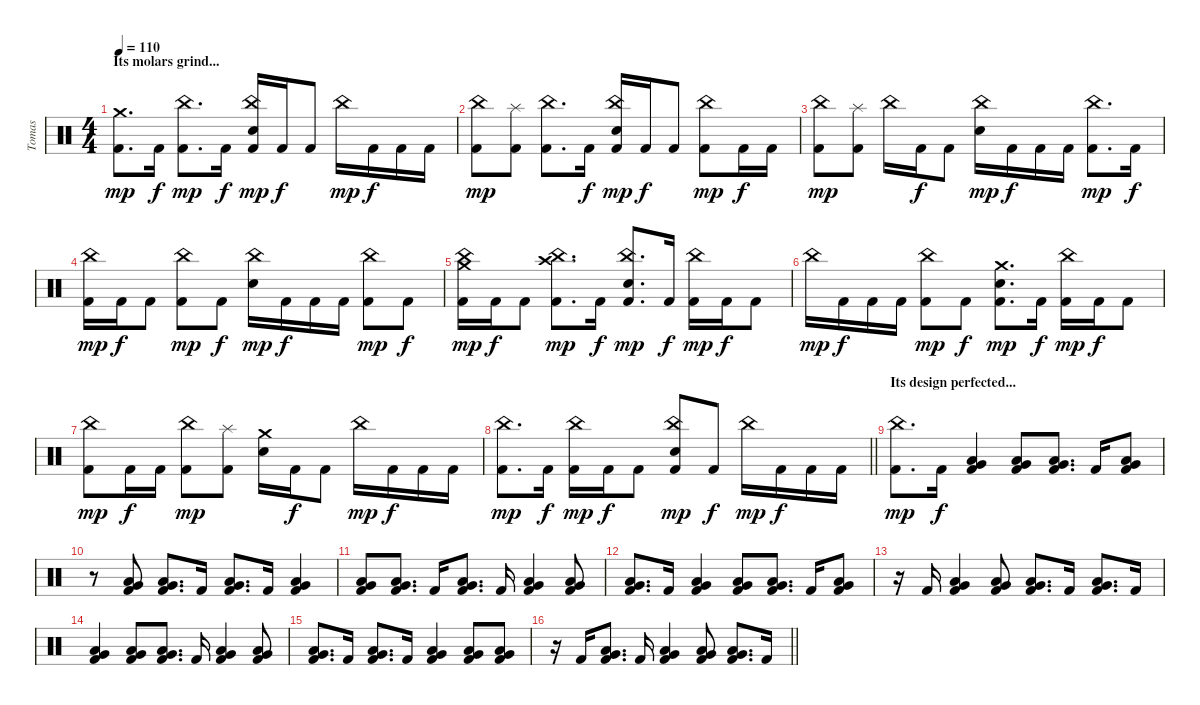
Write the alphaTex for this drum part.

\track ("Tomas" "Tomas") {instrument percussion}
\staff {score}
\articulation defaults
\ts (4 4)
\section ("" "Its molars grind...")
\tempo 110
\clef neutral
\ks c
("Crash medium (hit)" "Kick (hit) 2").8{d dy mp} "Kick (hit) 2".16{dy f} ("China (hit)" "Kick (hit) 2").8{d dy mp} "Kick (hit) 2".16{dy f} ("China (hit)" "Electric Snare (hit)" "Kick (hit) 2").16{dy mp} "Kick (hit) 2".16{dy f} "Kick (hit) 2".8 "China (hit)".16{dy mp} "Kick (hit) 2".16{dy f} "Kick (hit) 2".16 "Kick (hit) 2".16 |
("China (hit)" "Kick (hit) 2").8{dy mp} ("Splash (hit)" "Kick (hit) 2").8 ("China (hit)" "Kick (hit) 2").8{d} "Kick (hit) 2".16{dy f} ("China (hit)" "Electric Snare (hit)" "Kick (hit) 2").16{dy mp} "Kick (hit) 2".16{dy f} "Kick (hit) 2".8 ("China (hit)" "Kick (hit) 2").8{dy mp} "Kick (hit) 2".16{dy f} "Kick (hit) 2".16 |
("China (hit)" "Kick (hit) 2").8{dy mp} ("Splash (hit)" "Kick (hit) 2").8 "China (hit)".16 "Kick (hit) 2".16{dy f} "Kick (hit) 2".8 ("China (hit)" "Electric Snare (hit)").16{dy mp} "Kick (hit) 2".16{dy f} "Kick (hit) 2".16 "Kick (hit) 2".16 ("China (hit)" "Kick (hit) 2").8{d dy mp} "Kick (hit) 2".16{dy f} |
("China (hit)" "Kick (hit) 2").16{dy mp} "Kick (hit) 2".16{dy f} "Kick (hit) 2".8 ("China (hit)" "Kick (hit) 2").8{dy mp} "Kick (hit) 2".8{dy f} ("China (hit)" "Electric Snare (hit)").16{dy mp} "Kick (hit) 2".16{dy f} "Kick (hit) 2".16 "Kick (hit) 2".16 ("China (hit)" "Kick (hit) 2").8{dy mp} "Kick (hit) 2".8{dy f} |
("China (hit)" "Crash medium (hit)" "Kick (hit) 2").16{dy mp} "Kick (hit) 2".16{dy f} "Kick (hit) 2".8 ("China (hit)" "Crash high (hit)" "Kick (hit) 2").8{d dy mp} "Kick (hit) 2".16{dy f} ("China (hit)" "Electric Snare (hit)" "Kick (hit) 2").8{d dy mp} "Kick (hit) 2".16{dy f} ("China (hit)" "Kick (hit) 2").16{dy mp} "Kick (hit) 2".16{dy f} "Kick (hit) 2".8 |
"China (hit)".16{dy mp} "Kick (hit) 2".16{dy f} "Kick (hit) 2".16 "Kick (hit) 2".16 ("China (hit)" "Kick (hit) 2").8{dy mp} "Kick (hit) 2".8{dy f} ("Crash medium (hit)" "Electric Snare (hit)" "Kick (hit) 2").8{d dy mp} "Kick (hit) 2".16{dy f} ("China (hit)" "Kick (hit) 2").16{dy mp} "Kick (hit) 2".16{dy f} "Kick (hit) 2".8 |
("China (hit)" "Kick (hit) 2").8{dy mp} "Kick (hit) 2".16{dy f} "Kick (hit) 2".16 ("China (hit)" "Kick (hit) 2").8{dy mp} ("Splash (hit)" "Kick (hit) 2").8 ("Crash medium (hit)" "Electric Snare (hit)").16 "Kick (hit) 2".16{dy f} "Kick (hit) 2".8 "China (hit)".16{dy mp} "Kick (hit) 2".16{dy f} "Kick (hit) 2".16 "Kick (hit) 2".16 |
\barLineRight lightlight
("China (hit)" "Kick (hit) 2").8{d dy mp} "Kick (hit) 2".16{dy f} ("China (hit)" "Kick (hit) 2").16{dy mp} "Kick (hit) 2".16{dy f} "Kick (hit) 2".8 ("China (hit)" "Electric Snare (hit)" "Kick (hit) 2").8{dy mp} "Kick (hit) 2".8{dy f} "China (hit)".16{dy mp} "Kick (hit) 2".16{dy f} "Kick (hit) 2".16 "Kick (hit) 2".16 |
\section ("" "Its design perfected...")
("China (hit)" "Kick (hit) 2").8{d dy mp} "Kick (hit) 2".16{dy f} ("Very Low Tom (hit)" "Low Floor Tom (hit)" "Kick (hit) 2").4 ("Very Low Tom (hit)" "Low Floor Tom (hit)" "Kick (hit) 2").8 ("Very Low Tom (hit)" "Low Floor Tom (hit)" "Kick (hit) 2").8{d} "Kick (hit) 2".16 ("Very Low Tom (hit)" "Low Floor Tom (hit)" "Kick (hit) 2").8 |
r.8 ("Very Low Tom (hit)" "Low Floor Tom (hit)" "Kick (hit) 2").8 ("Very Low Tom (hit)" "Low Floor Tom (hit)" "Kick (hit) 2").8{d} "Kick (hit) 2".16 ("Very Low Tom (hit)" "Low Floor Tom (hit)" "Kick (hit) 2").8{d} "Kick (hit) 2".16 ("Very Low Tom (hit)" "Low Floor Tom (hit)" "Kick (hit) 2").4 |
("Very Low Tom (hit)" "Low Floor Tom (hit)" "Kick (hit) 2").8 ("Very Low Tom (hit)" "Low Floor Tom (hit)" "Kick (hit) 2").8{d} "Kick (hit) 2".16 ("Very Low Tom (hit)" "Low Floor Tom (hit)" "Kick (hit) 2").8{d} "Kick (hit) 2".16 ("Very Low Tom (hit)" "Low Floor Tom (hit)" "Kick (hit) 2").4 ("Very Low Tom (hit)" "Low Floor Tom (hit)" "Kick (hit) 2").8 |
("Very Low Tom (hit)" "Low Floor Tom (hit)" "Kick (hit) 2").8{d} "Kick (hit) 2".16 ("Very Low Tom (hit)" "Low Floor Tom (hit)" "Kick (hit) 2").4 ("Very Low Tom (hit)" "Low Floor Tom (hit)" "Kick (hit) 2").8 ("Very Low Tom (hit)" "Low Floor Tom (hit)" "Kick (hit) 2").8{d} "Kick (hit) 2".16 ("Very Low Tom (hit)" "Low Floor Tom (hit)" "Kick (hit) 2").8 |
r.16 "Kick (hit) 2".16 ("Very Low Tom (hit)" "Low Floor Tom (hit)" "Kick (hit) 2").4 ("Very Low Tom (hit)" "Low Floor Tom (hit)" "Kick (hit) 2").8 ("Very Low Tom (hit)" "Low Floor Tom (hit)" "Kick (hit) 2").8{d} "Kick (hit) 2".16 ("Very Low Tom (hit)" "Low Floor Tom (hit)" "Kick (hit) 2").8{d} "Kick (hit) 2".16 |
("Very Low Tom (hit)" "Low Floor Tom (hit)" "Kick (hit) 2").4 ("Very Low Tom (hit)" "Low Floor Tom (hit)" "Kick (hit) 2").8 ("Very Low Tom (hit)" "Low Floor Tom (hit)" "Kick (hit) 2").8{d} "Kick (hit) 2".16 ("Very Low Tom (hit)" "Low Floor Tom (hit)" "Kick (hit) 2").4 ("Very Low Tom (hit)" "Low Floor Tom (hit)" "Kick (hit) 2").8 |
("Very Low Tom (hit)" "Low Floor Tom (hit)" "Kick (hit) 2").8{d} "Kick (hit) 2".16 ("Very Low Tom (hit)" "Low Floor Tom (hit)" "Kick (hit) 2").8{d} "Kick (hit) 2".16 ("Very Low Tom (hit)" "Low Floor Tom (hit)" "Kick (hit) 2").4 ("Very Low Tom (hit)" "Low Floor Tom (hit)" "Kick (hit) 2").8 ("Very Low Tom (hit)" "Low Floor Tom (hit)" "Kick (hit) 2").8 |
\barLineRight lightlight
r.16 "Kick (hit) 2".16 ("Very Low Tom (hit)" "Low Floor Tom (hit)" "Kick (hit) 2").8{d} "Kick (hit) 2".16 ("Very Low Tom (hit)" "Low Floor Tom (hit)" "Kick (hit) 2").4 ("Very Low Tom (hit)" "Low Floor Tom (hit)" "Kick (hit) 2").8 ("Very Low Tom (hit)" "Low Floor Tom (hit)" "Kick (hit) 2").8{d} "Kick (hit) 2".16
